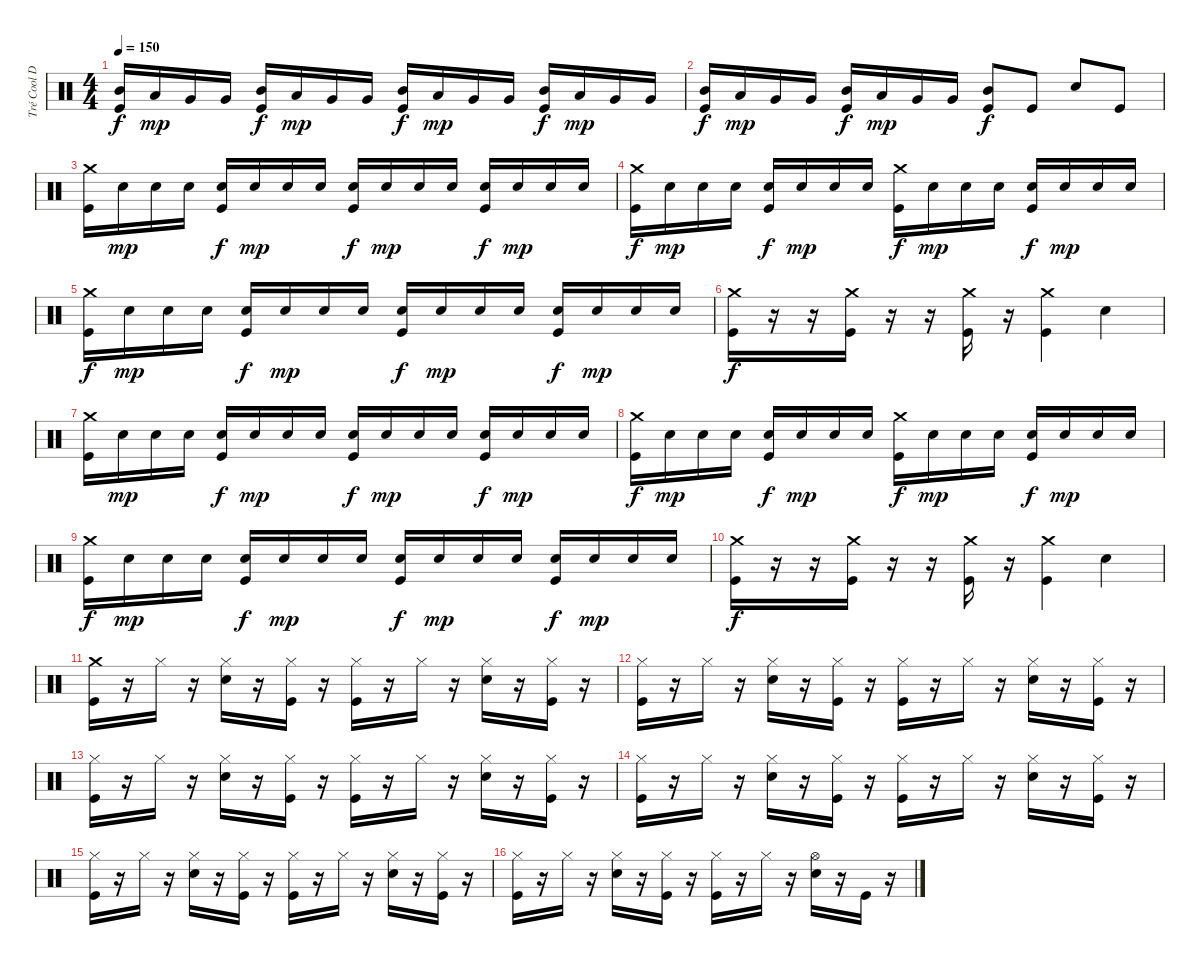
\track ("Tré Cool Drums" "Tré Cool D") {instrument percussion}
\staff {score}
\articulation defaults
\ts (4 4)
\tempo 150
\clef neutral
\ks c
("Mid Tom (hit)" "Kick (hit)").16{dy f volume 0} "Low Floor Tom (hit)".16{dy mp volume 13} "Very Low Tom (hit)".16 "Very Low Tom (hit)".16 ("Mid Tom (hit)" "Kick (hit)").16{dy f} "Low Floor Tom (hit)".16{dy mp} "Very Low Tom (hit)".16 "Very Low Tom (hit)".16 ("Mid Tom (hit)" "Kick (hit)").16{dy f} "Low Floor Tom (hit)".16{dy mp} "Very Low Tom (hit)".16 "Very Low Tom (hit)".16 ("Mid Tom (hit)" "Kick (hit)").16{dy f} "Low Floor Tom (hit)".16{dy mp} "Very Low Tom (hit)".16 "Very Low Tom (hit)".16 |
("Mid Tom (hit)" "Kick (hit)").16{dy f} "Low Floor Tom (hit)".16{dy mp} "Very Low Tom (hit)".16 "Very Low Tom (hit)".16 ("Mid Tom (hit)" "Kick (hit)").16{dy f} "Low Floor Tom (hit)".16{dy mp} "Very Low Tom (hit)".16 "Very Low Tom (hit)".16 ("Mid Tom (hit)" "Kick (hit)").8{dy f} "Kick (hit)".8 "Electric Snare (hit)".8 "Kick (hit)".8 |
("Crash medium (hit)" "Kick (hit)").16 "Electric Snare (hit)".16{dy mp} "Electric Snare (hit)".16 "Electric Snare (hit)".16 ("Electric Snare (hit)" "Kick (hit)").16{dy f} "Electric Snare (hit)".16{dy mp} "Electric Snare (hit)".16 "Electric Snare (hit)".16 ("Electric Snare (hit)" "Kick (hit)").16{dy f} "Electric Snare (hit)".16{dy mp} "Electric Snare (hit)".16 "Electric Snare (hit)".16 ("Electric Snare (hit)" "Kick (hit)").16{dy f} "Electric Snare (hit)".16{dy mp} "Electric Snare (hit)".16 "Electric Snare (hit)".16 |
("Crash medium (hit)" "Kick (hit)").16{dy f} "Electric Snare (hit)".16{dy mp} "Electric Snare (hit)".16 "Electric Snare (hit)".16 ("Electric Snare (hit)" "Kick (hit)").16{dy f} "Electric Snare (hit)".16{dy mp} "Electric Snare (hit)".16 "Electric Snare (hit)".16 ("Crash medium (hit)" "Kick (hit)").16{dy f} "Electric Snare (hit)".16{dy mp} "Electric Snare (hit)".16 "Electric Snare (hit)".16 ("Electric Snare (hit)" "Kick (hit)").16{dy f} "Electric Snare (hit)".16{dy mp} "Electric Snare (hit)".16 "Electric Snare (hit)".16 |
("Crash medium (hit)" "Kick (hit)").16{dy f} "Electric Snare (hit)".16{dy mp} "Electric Snare (hit)".16 "Electric Snare (hit)".16 ("Electric Snare (hit)" "Kick (hit)").16{dy f} "Electric Snare (hit)".16{dy mp} "Electric Snare (hit)".16 "Electric Snare (hit)".16 ("Electric Snare (hit)" "Kick (hit)").16{dy f} "Electric Snare (hit)".16{dy mp} "Electric Snare (hit)".16 "Electric Snare (hit)".16 ("Electric Snare (hit)" "Kick (hit)").16{dy f} "Electric Snare (hit)".16{dy mp} "Electric Snare (hit)".16 "Electric Snare (hit)".16 |
("Crash medium (hit)" "Kick (hit)").16{dy f} r.16 r.16 ("Crash medium (hit)" "Kick (hit)").16 r.16 r.16 ("Crash medium (hit)" "Kick (hit)").16 r.16 ("Crash medium (hit)" "Kick (hit)").4 "Electric Snare (hit)".4 |
("Crash medium (hit)" "Kick (hit)").16 "Electric Snare (hit)".16{dy mp} "Electric Snare (hit)".16 "Electric Snare (hit)".16 ("Electric Snare (hit)" "Kick (hit)").16{dy f} "Electric Snare (hit)".16{dy mp} "Electric Snare (hit)".16 "Electric Snare (hit)".16 ("Electric Snare (hit)" "Kick (hit)").16{dy f} "Electric Snare (hit)".16{dy mp} "Electric Snare (hit)".16 "Electric Snare (hit)".16 ("Electric Snare (hit)" "Kick (hit)").16{dy f} "Electric Snare (hit)".16{dy mp} "Electric Snare (hit)".16 "Electric Snare (hit)".16 |
("Crash medium (hit)" "Kick (hit)").16{dy f} "Electric Snare (hit)".16{dy mp} "Electric Snare (hit)".16 "Electric Snare (hit)".16 ("Electric Snare (hit)" "Kick (hit)").16{dy f} "Electric Snare (hit)".16{dy mp} "Electric Snare (hit)".16 "Electric Snare (hit)".16 ("Crash medium (hit)" "Kick (hit)").16{dy f} "Electric Snare (hit)".16{dy mp} "Electric Snare (hit)".16 "Electric Snare (hit)".16 ("Electric Snare (hit)" "Kick (hit)").16{dy f} "Electric Snare (hit)".16{dy mp} "Electric Snare (hit)".16 "Electric Snare (hit)".16 |
("Crash medium (hit)" "Kick (hit)").16{dy f} "Electric Snare (hit)".16{dy mp} "Electric Snare (hit)".16 "Electric Snare (hit)".16 ("Electric Snare (hit)" "Kick (hit)").16{dy f} "Electric Snare (hit)".16{dy mp} "Electric Snare (hit)".16 "Electric Snare (hit)".16 ("Electric Snare (hit)" "Kick (hit)").16{dy f} "Electric Snare (hit)".16{dy mp} "Electric Snare (hit)".16 "Electric Snare (hit)".16 ("Electric Snare (hit)" "Kick (hit)").16{dy f} "Electric Snare (hit)".16{dy mp} "Electric Snare (hit)".16 "Electric Snare (hit)".16 |
("Crash medium (hit)" "Kick (hit)").16{dy f} r.16 r.16 ("Crash medium (hit)" "Kick (hit)").16 r.16 r.16 ("Crash medium (hit)" "Kick (hit)").16 r.16 ("Crash medium (hit)" "Kick (hit)").4 "Electric Snare (hit)".4 |
("Crash medium (hit)" "Kick (hit)").16 r.16 "Hi-Hat (closed)".16 r.16 ("Hi-Hat (closed)" "Electric Snare (hit)").16 r.16 ("Hi-Hat (closed)" "Kick (hit)").16 r.16 ("Hi-Hat (closed)" "Kick (hit)").16 r.16 "Hi-Hat (closed)".16 r.16 ("Hi-Hat (closed)" "Electric Snare (hit)").16 r.16 ("Hi-Hat (closed)" "Kick (hit)").16 r.16 |
("Hi-Hat (closed)" "Kick (hit)").16 r.16 "Hi-Hat (closed)".16 r.16 ("Hi-Hat (closed)" "Electric Snare (hit)").16 r.16 ("Hi-Hat (closed)" "Kick (hit)").16 r.16 ("Hi-Hat (closed)" "Kick (hit)").16 r.16 "Hi-Hat (closed)".16 r.16 ("Hi-Hat (closed)" "Electric Snare (hit)").16 r.16 ("Hi-Hat (closed)" "Kick (hit)").16 r.16 |
("Hi-Hat (closed)" "Kick (hit)").16 r.16 "Hi-Hat (closed)".16 r.16 ("Hi-Hat (closed)" "Electric Snare (hit)").16 r.16 ("Hi-Hat (closed)" "Kick (hit)").16 r.16 ("Hi-Hat (closed)" "Kick (hit)").16 r.16 "Hi-Hat (closed)".16 r.16 ("Hi-Hat (closed)" "Electric Snare (hit)").16 r.16 ("Hi-Hat (closed)" "Kick (hit)").16 r.16 |
("Hi-Hat (closed)" "Kick (hit)").16 r.16 "Hi-Hat (closed)".16 r.16 ("Hi-Hat (closed)" "Electric Snare (hit)").16 r.16 ("Hi-Hat (closed)" "Kick (hit)").16 r.16 ("Hi-Hat (closed)" "Kick (hit)").16 r.16 "Hi-Hat (closed)".16 r.16 ("Hi-Hat (closed)" "Electric Snare (hit)").16 r.16 ("Hi-Hat (closed)" "Kick (hit)").16 r.16 |
("Hi-Hat (closed)" "Kick (hit)").16 r.16 "Hi-Hat (closed)".16 r.16 ("Hi-Hat (closed)" "Electric Snare (hit)").16 r.16 ("Hi-Hat (closed)" "Kick (hit)").16 r.16 ("Hi-Hat (closed)" "Kick (hit)").16 r.16 "Hi-Hat (closed)".16 r.16 ("Hi-Hat (closed)" "Electric Snare (hit)").16 r.16 ("Hi-Hat (closed)" "Kick (hit)").16 r.16 |
("Hi-Hat (closed)" "Kick (hit)").16 r.16 "Hi-Hat (closed)".16 r.16 ("Hi-Hat (closed)" "Electric Snare (hit)").16 r.16 ("Hi-Hat (closed)" "Kick (hit)").16 r.16 ("Hi-Hat (closed)" "Kick (hit)").16 r.16 "Hi-Hat (closed)".16 r.16 ("Hi-Hat (open)" "Electric Snare (hit)").16 r.16 "Kick (hit)".16 r.16
